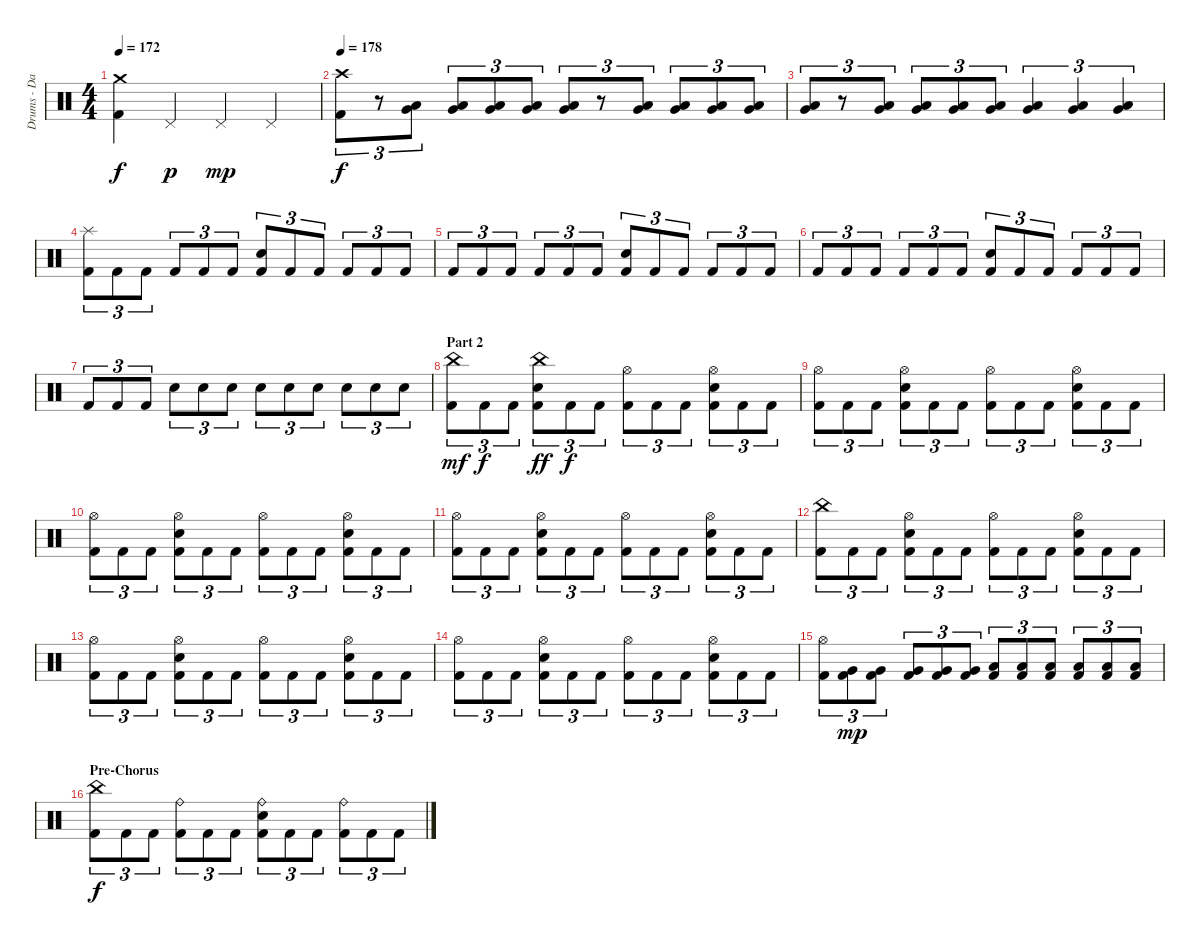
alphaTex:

\track ("Drums - Dan Zimmermann" "Drums - Da") {instrument percussion}
\staff {score}
\articulation defaults
\ts (4 4)
\tempo 172
\clef neutral
\ks c
("Kick (hit) 2" "Crash medium (hit)").4{dy f} "Pedal Hi-Hat (hit)".4{dy p} "Pedal Hi-Hat (hit)".4{dy mp} "Pedal Hi-Hat (hit)".4 |
\tempo 178
("Kick (hit) 2" "Crash high (hit)").8{tu (3 2) dy f} r.8{tu (3 2)} ("Low Tom (hit)" "Very Low Tom (hit)").8{tu (3 2)} ("Low Tom (hit)" "Very Low Tom (hit)").8{tu (3 2)} ("Low Tom (hit)" "Very Low Tom (hit)").8{tu (3 2)} ("Low Tom (hit)" "Very Low Tom (hit)").8{tu (3 2)} ("Low Tom (hit)" "Very Low Tom (hit)").8{tu (3 2)} r.8{tu (3 2)} ("Low Tom (hit)" "Very Low Tom (hit)").8{tu (3 2)} ("Low Tom (hit)" "Very Low Tom (hit)").8{tu (3 2)} ("Low Tom (hit)" "Very Low Tom (hit)").8{tu (3 2)} ("Low Tom (hit)" "Very Low Tom (hit)").8{tu (3 2)} |
("Low Tom (hit)" "Very Low Tom (hit)").8{tu (3 2)} r.8{tu (3 2)} ("Low Tom (hit)" "Very Low Tom (hit)").8{tu (3 2)} ("Low Tom (hit)" "Very Low Tom (hit)").8{tu (3 2)} ("Low Tom (hit)" "Very Low Tom (hit)").8{tu (3 2)} ("Low Tom (hit)" "Very Low Tom (hit)").8{tu (3 2)} ("Low Tom (hit)" "Very Low Tom (hit)").4{tu (3 2)} ("Low Tom (hit)" "Very Low Tom (hit)").4{tu (3 2)} ("Low Tom (hit)" "Very Low Tom (hit)").4{tu (3 2)} |
("Kick (hit) 2" "Splash (hit)").8{tu (3 2)} "Kick (hit) 2".8{tu (3 2)} "Kick (hit) 2".8{tu (3 2)} "Kick (hit) 2".8{tu (3 2)} "Kick (hit) 2".8{tu (3 2)} "Kick (hit) 2".8{tu (3 2)} ("Kick (hit) 2" "Electric Snare (hit)").8{tu (3 2)} "Kick (hit) 2".8{tu (3 2)} "Kick (hit) 2".8{tu (3 2)} "Kick (hit) 2".8{tu (3 2)} "Kick (hit) 2".8{tu (3 2)} "Kick (hit) 2".8{tu (3 2)} |
"Kick (hit) 2".8{tu (3 2)} "Kick (hit) 2".8{tu (3 2)} "Kick (hit) 2".8{tu (3 2)} "Kick (hit) 2".8{tu (3 2)} "Kick (hit) 2".8{tu (3 2)} "Kick (hit) 2".8{tu (3 2)} ("Kick (hit) 2" "Electric Snare (hit)").8{tu (3 2)} "Kick (hit) 2".8{tu (3 2)} "Kick (hit) 2".8{tu (3 2)} "Kick (hit) 2".8{tu (3 2)} "Kick (hit) 2".8{tu (3 2)} "Kick (hit) 2".8{tu (3 2)} |
"Kick (hit) 2".8{tu (3 2)} "Kick (hit) 2".8{tu (3 2)} "Kick (hit) 2".8{tu (3 2)} "Kick (hit) 2".8{tu (3 2)} "Kick (hit) 2".8{tu (3 2)} "Kick (hit) 2".8{tu (3 2)} ("Kick (hit) 2" "Electric Snare (hit)").8{tu (3 2)} "Kick (hit) 2".8{tu (3 2)} "Kick (hit) 2".8{tu (3 2)} "Kick (hit) 2".8{tu (3 2)} "Kick (hit) 2".8{tu (3 2)} "Kick (hit) 2".8{tu (3 2)} |
"Kick (hit) 2".8{tu (3 2)} "Kick (hit) 2".8{tu (3 2)} "Kick (hit) 2".8{tu (3 2)} "Electric Snare (hit)".8{tu (3 2)} "Electric Snare (hit)".8{tu (3 2)} "Electric Snare (hit)".8{tu (3 2)} "Electric Snare (hit)".8{tu (3 2)} "Electric Snare (hit)".8{tu (3 2)} "Electric Snare (hit)".8{tu (3 2)} "Electric Snare (hit)".8{tu (3 2)} "Electric Snare (hit)".8{tu (3 2)} "Electric Snare (hit)".8{tu (3 2)} |
\section ("" "Part 2")
("Kick (hit) 2" "China (hit)").8{tu (3 2) dy mf} "Kick (hit) 2".8{tu (3 2) dy f} "Kick (hit) 2".8{tu (3 2)} ("Kick (hit) 2" "Electric Snare (hit)" "China (hit)").8{tu (3 2) dy ff} "Kick (hit) 2".8{tu (3 2) dy f} "Kick (hit) 2".8{tu (3 2)} ("Kick (hit) 2" "Hi-Hat (open)").8{tu (3 2)} "Kick (hit) 2".8{tu (3 2)} "Kick (hit) 2".8{tu (3 2)} ("Kick (hit) 2" "Electric Snare (hit)" "Hi-Hat (open)").8{tu (3 2)} "Kick (hit) 2".8{tu (3 2)} "Kick (hit) 2".8{tu (3 2)} |
("Kick (hit) 2" "Hi-Hat (open)").8{tu (3 2)} "Kick (hit) 2".8{tu (3 2)} "Kick (hit) 2".8{tu (3 2)} ("Kick (hit) 2" "Electric Snare (hit)" "Hi-Hat (open)").8{tu (3 2)} "Kick (hit) 2".8{tu (3 2)} "Kick (hit) 2".8{tu (3 2)} ("Kick (hit) 2" "Hi-Hat (open)").8{tu (3 2)} "Kick (hit) 2".8{tu (3 2)} "Kick (hit) 2".8{tu (3 2)} ("Kick (hit) 2" "Electric Snare (hit)" "Hi-Hat (open)").8{tu (3 2)} "Kick (hit) 2".8{tu (3 2)} "Kick (hit) 2".8{tu (3 2)} |
("Kick (hit) 2" "Hi-Hat (open)").8{tu (3 2)} "Kick (hit) 2".8{tu (3 2)} "Kick (hit) 2".8{tu (3 2)} ("Kick (hit) 2" "Electric Snare (hit)" "Hi-Hat (open)").8{tu (3 2)} "Kick (hit) 2".8{tu (3 2)} "Kick (hit) 2".8{tu (3 2)} ("Kick (hit) 2" "Hi-Hat (open)").8{tu (3 2)} "Kick (hit) 2".8{tu (3 2)} "Kick (hit) 2".8{tu (3 2)} ("Kick (hit) 2" "Electric Snare (hit)" "Hi-Hat (open)").8{tu (3 2)} "Kick (hit) 2".8{tu (3 2)} "Kick (hit) 2".8{tu (3 2)} |
("Kick (hit) 2" "Hi-Hat (open)").8{tu (3 2)} "Kick (hit) 2".8{tu (3 2)} "Kick (hit) 2".8{tu (3 2)} ("Kick (hit) 2" "Electric Snare (hit)" "Hi-Hat (open)").8{tu (3 2)} "Kick (hit) 2".8{tu (3 2)} "Kick (hit) 2".8{tu (3 2)} ("Kick (hit) 2" "Hi-Hat (open)").8{tu (3 2)} "Kick (hit) 2".8{tu (3 2)} "Kick (hit) 2".8{tu (3 2)} ("Kick (hit) 2" "Electric Snare (hit)" "Hi-Hat (open)").8{tu (3 2)} "Kick (hit) 2".8{tu (3 2)} "Kick (hit) 2".8{tu (3 2)} |
("Kick (hit) 2" "China (hit)").8{tu (3 2)} "Kick (hit) 2".8{tu (3 2)} "Kick (hit) 2".8{tu (3 2)} ("Kick (hit) 2" "Electric Snare (hit)" "Hi-Hat (open)").8{tu (3 2)} "Kick (hit) 2".8{tu (3 2)} "Kick (hit) 2".8{tu (3 2)} ("Kick (hit) 2" "Hi-Hat (open)").8{tu (3 2)} "Kick (hit) 2".8{tu (3 2)} "Kick (hit) 2".8{tu (3 2)} ("Kick (hit) 2" "Electric Snare (hit)" "Hi-Hat (open)").8{tu (3 2)} "Kick (hit) 2".8{tu (3 2)} "Kick (hit) 2".8{tu (3 2)} |
("Kick (hit) 2" "Hi-Hat (open)").8{tu (3 2)} "Kick (hit) 2".8{tu (3 2)} "Kick (hit) 2".8{tu (3 2)} ("Kick (hit) 2" "Electric Snare (hit)" "Hi-Hat (open)").8{tu (3 2)} "Kick (hit) 2".8{tu (3 2)} "Kick (hit) 2".8{tu (3 2)} ("Kick (hit) 2" "Hi-Hat (open)").8{tu (3 2)} "Kick (hit) 2".8{tu (3 2)} "Kick (hit) 2".8{tu (3 2)} ("Kick (hit) 2" "Electric Snare (hit)" "Hi-Hat (open)").8{tu (3 2)} "Kick (hit) 2".8{tu (3 2)} "Kick (hit) 2".8{tu (3 2)} |
("Kick (hit) 2" "Hi-Hat (open)").8{tu (3 2)} "Kick (hit) 2".8{tu (3 2)} "Kick (hit) 2".8{tu (3 2)} ("Kick (hit) 2" "Electric Snare (hit)" "Hi-Hat (open)").8{tu (3 2)} "Kick (hit) 2".8{tu (3 2)} "Kick (hit) 2".8{tu (3 2)} ("Kick (hit) 2" "Hi-Hat (open)").8{tu (3 2)} "Kick (hit) 2".8{tu (3 2)} "Kick (hit) 2".8{tu (3 2)} ("Kick (hit) 2" "Electric Snare (hit)" "Hi-Hat (open)").8{tu (3 2)} "Kick (hit) 2".8{tu (3 2)} "Kick (hit) 2".8{tu (3 2)} |
("Kick (hit) 2" "Hi-Hat (open)").8{tu (3 2)} ("Kick (hit) 2" "Very Low Tom (hit)").8{tu (3 2) dy mp} ("Kick (hit) 2" "Very Low Tom (hit)").8{tu (3 2)} ("Kick (hit) 2" "Very Low Tom (hit)").8{tu (3 2)} ("Kick (hit) 2" "Very Low Tom (hit)").8{tu (3 2)} ("Kick (hit) 2" "Very Low Tom (hit)").8{tu (3 2)} ("Kick (hit) 2" "Low Floor Tom (hit)").8{tu (3 2)} ("Kick (hit) 2" "Low Floor Tom (hit)").8{tu (3 2)} ("Kick (hit) 2" "Low Floor Tom (hit)").8{tu (3 2)} ("Kick (hit) 2" "Low Floor Tom (hit)").8{tu (3 2)} ("Kick (hit) 2" "Low Floor Tom (hit)").8{tu (3 2)} ("Kick (hit) 2" "Low Floor Tom (hit)").8{tu (3 2)} |
\section ("" "Pre-Chorus")
("Kick (hit) 2" "China (hit)").8{tu (3 2) dy f} "Kick (hit) 2".8{tu (3 2)} "Kick (hit) 2".8{tu (3 2)} ("Kick (hit) 2" "Ride (bell)").8{tu (3 2)} "Kick (hit) 2".8{tu (3 2)} "Kick (hit) 2".8{tu (3 2)} ("Kick (hit) 2" "Electric Snare (hit)" "Ride (bell)").8{tu (3 2)} "Kick (hit) 2".8{tu (3 2)} "Kick (hit) 2".8{tu (3 2)} ("Kick (hit) 2" "Ride (bell)").8{tu (3 2)} "Kick (hit) 2".8{tu (3 2)} "Kick (hit) 2".8{tu (3 2)}
